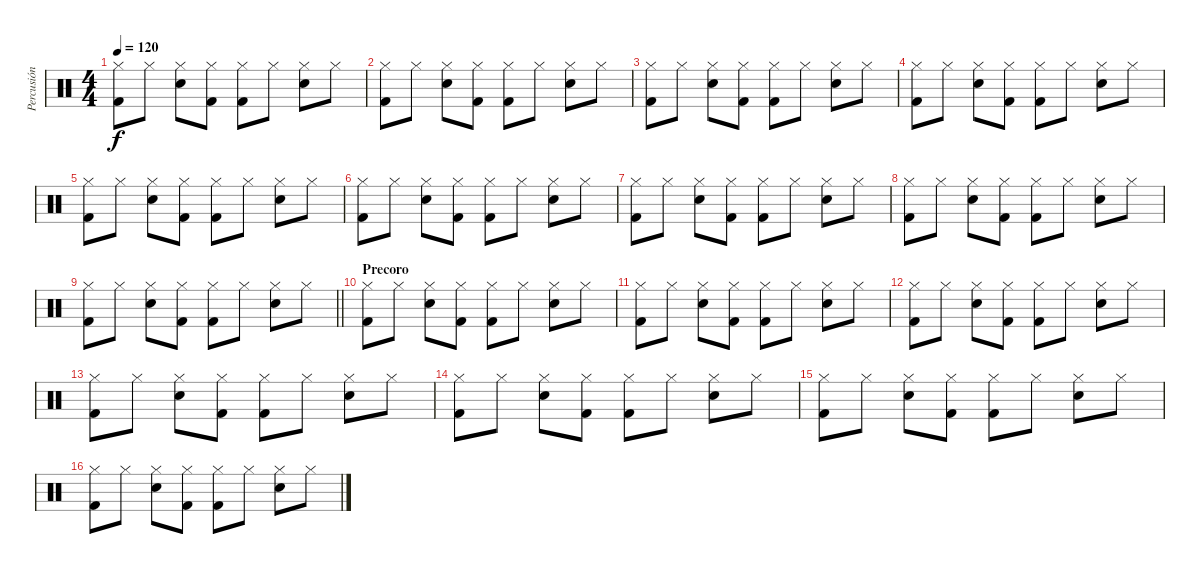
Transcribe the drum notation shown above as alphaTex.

\track ("Percusión" "Percusión") {instrument percussion}
\staff {score}
\articulation defaults
\ts (4 4)
\tempo 120
\clef neutral
\ks c
("Hi-Hat (closed)" "Kick (hit) 2").8{dy f} "Hi-Hat (closed)".8 ("Hi-Hat (closed)" "Snare (hit) 2").8 ("Hi-Hat (closed)" "Kick (hit) 2").8 ("Hi-Hat (closed)" "Kick (hit) 2").8 "Hi-Hat (closed)".8 ("Hi-Hat (closed)" "Snare (hit) 2").8 "Hi-Hat (closed)".8 |
("Hi-Hat (closed)" "Kick (hit) 2").8 "Hi-Hat (closed)".8 ("Hi-Hat (closed)" "Snare (hit) 2").8 ("Hi-Hat (closed)" "Kick (hit) 2").8 ("Hi-Hat (closed)" "Kick (hit) 2").8 "Hi-Hat (closed)".8 ("Hi-Hat (closed)" "Snare (hit) 2").8 "Hi-Hat (closed)".8 |
("Hi-Hat (closed)" "Kick (hit) 2").8 "Hi-Hat (closed)".8 ("Hi-Hat (closed)" "Snare (hit) 2").8 ("Hi-Hat (closed)" "Kick (hit) 2").8 ("Hi-Hat (closed)" "Kick (hit) 2").8 "Hi-Hat (closed)".8 ("Hi-Hat (closed)" "Snare (hit) 2").8 "Hi-Hat (closed)".8 |
("Hi-Hat (closed)" "Kick (hit) 2").8 "Hi-Hat (closed)".8 ("Hi-Hat (closed)" "Snare (hit) 2").8 ("Hi-Hat (closed)" "Kick (hit) 2").8 ("Hi-Hat (closed)" "Kick (hit) 2").8 "Hi-Hat (closed)".8 ("Hi-Hat (closed)" "Snare (hit) 2").8 "Hi-Hat (closed)".8 |
("Hi-Hat (closed)" "Kick (hit) 2").8 "Hi-Hat (closed)".8 ("Hi-Hat (closed)" "Snare (hit) 2").8 ("Hi-Hat (closed)" "Kick (hit) 2").8 ("Hi-Hat (closed)" "Kick (hit) 2").8 "Hi-Hat (closed)".8 ("Hi-Hat (closed)" "Snare (hit) 2").8 "Hi-Hat (closed)".8 |
("Hi-Hat (closed)" "Kick (hit) 2").8 "Hi-Hat (closed)".8 ("Hi-Hat (closed)" "Snare (hit) 2").8 ("Hi-Hat (closed)" "Kick (hit) 2").8 ("Hi-Hat (closed)" "Kick (hit) 2").8 "Hi-Hat (closed)".8 ("Hi-Hat (closed)" "Snare (hit) 2").8 "Hi-Hat (closed)".8 |
("Hi-Hat (closed)" "Kick (hit) 2").8 "Hi-Hat (closed)".8 ("Hi-Hat (closed)" "Snare (hit) 2").8 ("Hi-Hat (closed)" "Kick (hit) 2").8 ("Hi-Hat (closed)" "Kick (hit) 2").8 "Hi-Hat (closed)".8 ("Hi-Hat (closed)" "Snare (hit) 2").8 "Hi-Hat (closed)".8 |
("Hi-Hat (closed)" "Kick (hit) 2").8 "Hi-Hat (closed)".8 ("Hi-Hat (closed)" "Snare (hit) 2").8 ("Hi-Hat (closed)" "Kick (hit) 2").8 ("Hi-Hat (closed)" "Kick (hit) 2").8 "Hi-Hat (closed)".8 ("Hi-Hat (closed)" "Snare (hit) 2").8 "Hi-Hat (closed)".8 |
\barLineRight lightlight
("Hi-Hat (closed)" "Kick (hit) 2").8 "Hi-Hat (closed)".8 ("Hi-Hat (closed)" "Snare (hit) 2").8 ("Hi-Hat (closed)" "Kick (hit) 2").8 ("Hi-Hat (closed)" "Kick (hit) 2").8 "Hi-Hat (closed)".8 ("Hi-Hat (closed)" "Snare (hit) 2").8 "Hi-Hat (closed)".8 |
\section ("" "Precoro")
("Hi-Hat (closed)" "Kick (hit) 2").8 "Hi-Hat (closed)".8 ("Hi-Hat (closed)" "Snare (hit) 2").8 ("Hi-Hat (closed)" "Kick (hit) 2").8 ("Hi-Hat (closed)" "Kick (hit) 2").8 "Hi-Hat (closed)".8 ("Hi-Hat (closed)" "Snare (hit) 2").8 "Hi-Hat (closed)".8 |
("Hi-Hat (closed)" "Kick (hit) 2").8 "Hi-Hat (closed)".8 ("Hi-Hat (closed)" "Snare (hit) 2").8 ("Hi-Hat (closed)" "Kick (hit) 2").8 ("Hi-Hat (closed)" "Kick (hit) 2").8 "Hi-Hat (closed)".8 ("Hi-Hat (closed)" "Snare (hit) 2").8 "Hi-Hat (closed)".8 |
("Hi-Hat (closed)" "Kick (hit) 2").8 "Hi-Hat (closed)".8 ("Hi-Hat (closed)" "Snare (hit) 2").8 ("Hi-Hat (closed)" "Kick (hit) 2").8 ("Hi-Hat (closed)" "Kick (hit) 2").8 "Hi-Hat (closed)".8 ("Hi-Hat (closed)" "Snare (hit) 2").8 "Hi-Hat (closed)".8 |
("Hi-Hat (closed)" "Kick (hit) 2").8 "Hi-Hat (closed)".8 ("Hi-Hat (closed)" "Snare (hit) 2").8 ("Hi-Hat (closed)" "Kick (hit) 2").8 ("Hi-Hat (closed)" "Kick (hit) 2").8 "Hi-Hat (closed)".8 ("Hi-Hat (closed)" "Snare (hit) 2").8 "Hi-Hat (closed)".8 |
("Hi-Hat (closed)" "Kick (hit) 2").8 "Hi-Hat (closed)".8 ("Hi-Hat (closed)" "Snare (hit) 2").8 ("Hi-Hat (closed)" "Kick (hit) 2").8 ("Hi-Hat (closed)" "Kick (hit) 2").8 "Hi-Hat (closed)".8 ("Hi-Hat (closed)" "Snare (hit) 2").8 "Hi-Hat (closed)".8 |
("Hi-Hat (closed)" "Kick (hit) 2").8 "Hi-Hat (closed)".8 ("Hi-Hat (closed)" "Snare (hit) 2").8 ("Hi-Hat (closed)" "Kick (hit) 2").8 ("Hi-Hat (closed)" "Kick (hit) 2").8 "Hi-Hat (closed)".8 ("Hi-Hat (closed)" "Snare (hit) 2").8 "Hi-Hat (closed)".8 |
("Hi-Hat (closed)" "Kick (hit) 2").8 "Hi-Hat (closed)".8 ("Hi-Hat (closed)" "Snare (hit) 2").8 ("Hi-Hat (closed)" "Kick (hit) 2").8 ("Hi-Hat (closed)" "Kick (hit) 2").8 "Hi-Hat (closed)".8 ("Hi-Hat (closed)" "Snare (hit) 2").8 "Hi-Hat (closed)".8
